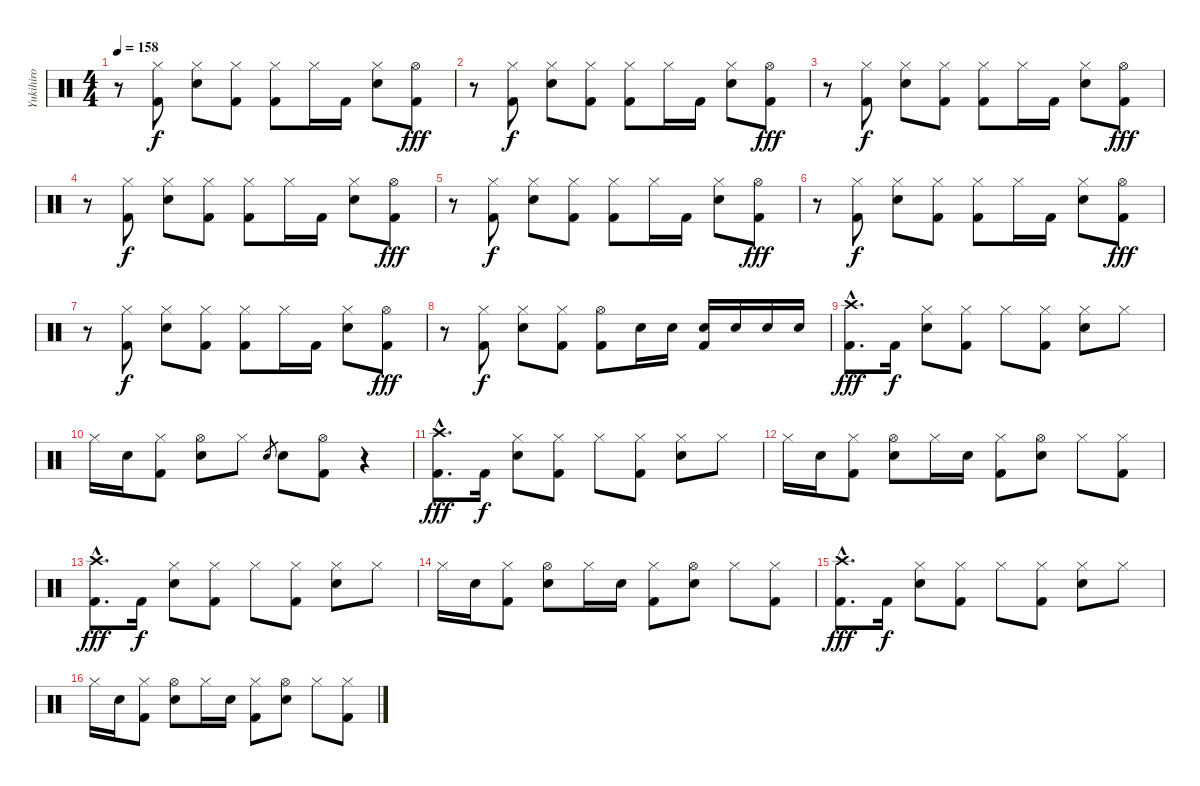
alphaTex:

\track ("Yukihiro" "Yukihiro") {instrument percussion}
\staff {score}
\articulation defaults
\ts (4 4)
\tempo 158
\clef neutral
\ks c
r.8{dy fff} ("Hi-Hat (closed)" "Kick (hit) 2").8{dy f} ("Hi-Hat (closed)" "Snare (hit) 2").8 ("Hi-Hat (closed)" "Kick (hit) 2").8 ("Hi-Hat (closed)" "Kick (hit) 2").8 "Hi-Hat (closed)".16 "Kick (hit) 2".16 ("Hi-Hat (closed)" "Snare (hit) 2").8 ("Hi-Hat (open)" "Kick (hit) 2").8{dy fff} |
r.8 ("Hi-Hat (closed)" "Kick (hit) 2").8{dy f} ("Hi-Hat (closed)" "Snare (hit) 2").8 ("Hi-Hat (closed)" "Kick (hit) 2").8 ("Hi-Hat (closed)" "Kick (hit) 2").8 "Hi-Hat (closed)".16 "Kick (hit) 2".16 ("Hi-Hat (closed)" "Snare (hit) 2").8 ("Hi-Hat (open)" "Kick (hit) 2").8{dy fff} |
r.8 ("Hi-Hat (closed)" "Kick (hit) 2").8{dy f} ("Hi-Hat (closed)" "Snare (hit) 2").8 ("Hi-Hat (closed)" "Kick (hit) 2").8 ("Hi-Hat (closed)" "Kick (hit) 2").8 "Hi-Hat (closed)".16 "Kick (hit) 2".16 ("Hi-Hat (closed)" "Snare (hit) 2").8 ("Hi-Hat (open)" "Kick (hit) 2").8{dy fff} |
r.8 ("Hi-Hat (closed)" "Kick (hit) 2").8{dy f} ("Hi-Hat (closed)" "Snare (hit) 2").8 ("Hi-Hat (closed)" "Kick (hit) 2").8 ("Hi-Hat (closed)" "Kick (hit) 2").8 "Hi-Hat (closed)".16 "Kick (hit) 2".16 ("Hi-Hat (closed)" "Snare (hit) 2").8 ("Hi-Hat (open)" "Kick (hit) 2").8{dy fff} |
r.8 ("Hi-Hat (closed)" "Kick (hit) 2").8{dy f} ("Hi-Hat (closed)" "Snare (hit) 2").8 ("Hi-Hat (closed)" "Kick (hit) 2").8 ("Hi-Hat (closed)" "Kick (hit) 2").8 "Hi-Hat (closed)".16 "Kick (hit) 2".16 ("Hi-Hat (closed)" "Snare (hit) 2").8 ("Hi-Hat (open)" "Kick (hit) 2").8{dy fff} |
r.8 ("Hi-Hat (closed)" "Kick (hit) 2").8{dy f} ("Hi-Hat (closed)" "Snare (hit) 2").8 ("Hi-Hat (closed)" "Kick (hit) 2").8 ("Hi-Hat (closed)" "Kick (hit) 2").8 "Hi-Hat (closed)".16 "Kick (hit) 2".16 ("Hi-Hat (closed)" "Snare (hit) 2").8 ("Hi-Hat (open)" "Kick (hit) 2").8{dy fff} |
r.8 ("Hi-Hat (closed)" "Kick (hit) 2").8{dy f} ("Hi-Hat (closed)" "Snare (hit) 2").8 ("Hi-Hat (closed)" "Kick (hit) 2").8 ("Hi-Hat (closed)" "Kick (hit) 2").8 "Hi-Hat (closed)".16 "Kick (hit) 2".16 ("Hi-Hat (closed)" "Snare (hit) 2").8 ("Hi-Hat (open)" "Kick (hit) 2").8{dy fff} |
r.8 ("Hi-Hat (closed)" "Kick (hit) 2").8{dy f} ("Hi-Hat (closed)" "Snare (hit) 2").8 ("Hi-Hat (closed)" "Kick (hit) 2").8 ("Hi-Hat (open)" "Kick (hit) 2").8 "Snare (hit) 2".16 "Snare (hit) 2".16 ("Snare (hit) 2" "Kick (hit) 2").16 "Snare (hit) 2".16 "Snare (hit) 2".16 "Snare (hit) 2".16 |
("Crash high (hit)"{hac} "Kick (hit) 2"{hac}).8{d dy fff} "Kick (hit) 2".16{dy f} ("Hi-Hat (closed)" "Snare (hit) 2").8 ("Hi-Hat (closed)" "Kick (hit) 2").8 "Hi-Hat (closed)".8 ("Hi-Hat (closed)" "Kick (hit) 2").8 ("Hi-Hat (closed)" "Snare (hit) 2").8 "Hi-Hat (closed)".8 |
"Hi-Hat (closed)".16 "Snare (hit) 2".16 ("Hi-Hat (closed)" "Kick (hit) 2").8 ("Hi-Hat (open)" "Snare (hit) 2").8 "Hi-Hat (closed)".8 "Snare (hit) 2".8{gr} "Snare (hit) 2".8 ("Hi-Hat (open)" "Kick (hit) 2").8 r.4 |
("Crash high (hit)"{hac} "Kick (hit) 2"{hac}).8{d dy fff} "Kick (hit) 2".16{dy f} ("Hi-Hat (closed)" "Snare (hit) 2").8 ("Hi-Hat (closed)" "Kick (hit) 2").8 "Hi-Hat (closed)".8 ("Hi-Hat (closed)" "Kick (hit) 2").8 ("Hi-Hat (closed)" "Snare (hit) 2").8 "Hi-Hat (closed)".8 |
"Hi-Hat (closed)".16 "Snare (hit) 2".16 ("Hi-Hat (closed)" "Kick (hit) 2").8 ("Hi-Hat (open)" "Snare (hit) 2").8 "Hi-Hat (closed)".16 "Snare (hit) 2".16 ("Hi-Hat (closed)" "Kick (hit) 2").8 ("Hi-Hat (open)" "Snare (hit) 2").8 "Hi-Hat (closed)".8 ("Hi-Hat (closed)" "Kick (hit) 2").8 |
("Crash high (hit)"{hac} "Kick (hit) 2"{hac}).8{d dy fff} "Kick (hit) 2".16{dy f} ("Hi-Hat (closed)" "Snare (hit) 2").8 ("Hi-Hat (closed)" "Kick (hit) 2").8 "Hi-Hat (closed)".8 ("Hi-Hat (closed)" "Kick (hit) 2").8 ("Hi-Hat (closed)" "Snare (hit) 2").8 "Hi-Hat (closed)".8 |
"Hi-Hat (closed)".16 "Snare (hit) 2".16 ("Hi-Hat (closed)" "Kick (hit) 2").8 ("Hi-Hat (open)" "Snare (hit) 2").8 "Hi-Hat (closed)".16 "Snare (hit) 2".16 ("Hi-Hat (closed)" "Kick (hit) 2").8 ("Hi-Hat (open)" "Snare (hit) 2").8 "Hi-Hat (closed)".8 ("Hi-Hat (closed)" "Kick (hit) 2").8 |
("Crash high (hit)"{hac} "Kick (hit) 2"{hac}).8{d dy fff} "Kick (hit) 2".16{dy f} ("Hi-Hat (closed)" "Snare (hit) 2").8 ("Hi-Hat (closed)" "Kick (hit) 2").8 "Hi-Hat (closed)".8 ("Hi-Hat (closed)" "Kick (hit) 2").8 ("Hi-Hat (closed)" "Snare (hit) 2").8 "Hi-Hat (closed)".8 |
"Hi-Hat (closed)".16 "Snare (hit) 2".16 ("Hi-Hat (closed)" "Kick (hit) 2").8 ("Hi-Hat (open)" "Snare (hit) 2").8 "Hi-Hat (closed)".16 "Snare (hit) 2".16 ("Hi-Hat (closed)" "Kick (hit) 2").8 ("Hi-Hat (open)" "Snare (hit) 2").8 "Hi-Hat (closed)".8 ("Hi-Hat (closed)" "Kick (hit) 2").8
